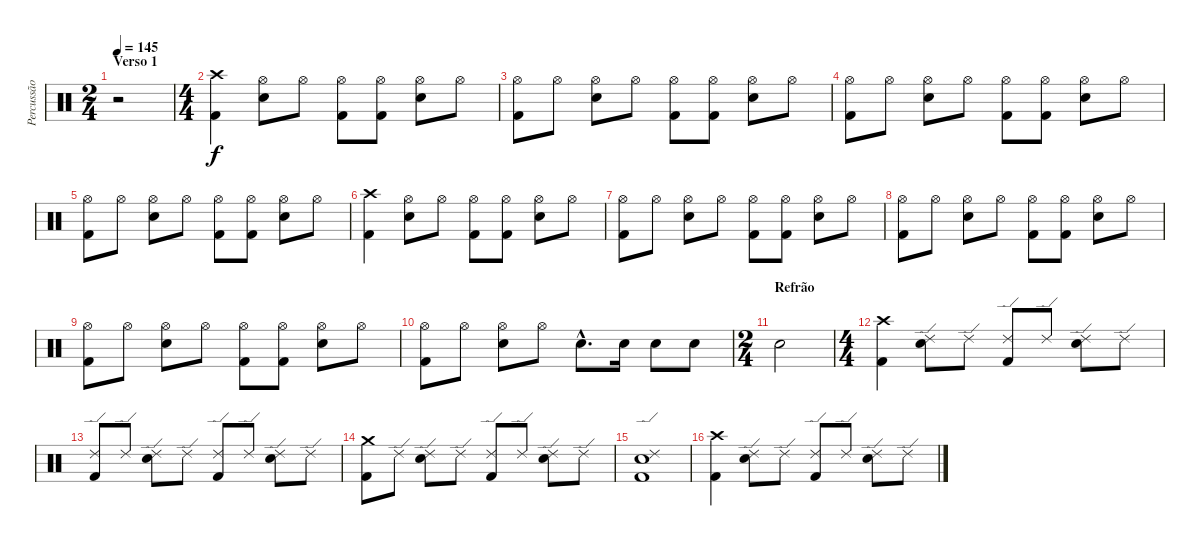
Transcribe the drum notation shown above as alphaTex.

\track ("Percussão" "Percussão") {instrument percussion}
\staff {score}
\articulation defaults
\ts (2 4)
\section ("" "Verso 1")
\tempo 145
\clef neutral
\ks c
r.2{dy f} |
\ts (4 4)
("Crash high (hit)" "Kick (hit) 2").4 ("Hi-Hat (open)" "Electric Snare (hit)").8 "Hi-Hat (open)".8 ("Hi-Hat (open)" "Kick (hit) 2").8 ("Hi-Hat (open)" "Kick (hit) 2").8 ("Hi-Hat (open)" "Electric Snare (hit)").8 "Hi-Hat (open)".8 |
("Hi-Hat (open)" "Kick (hit) 2").8 "Hi-Hat (open)".8 ("Hi-Hat (open)" "Electric Snare (hit)").8 "Hi-Hat (open)".8 ("Hi-Hat (open)" "Kick (hit) 2").8 ("Hi-Hat (open)" "Kick (hit) 2").8 ("Hi-Hat (open)" "Electric Snare (hit)").8 "Hi-Hat (open)".8 |
("Hi-Hat (open)" "Kick (hit) 2").8 "Hi-Hat (open)".8 ("Hi-Hat (open)" "Electric Snare (hit)").8 "Hi-Hat (open)".8 ("Hi-Hat (open)" "Kick (hit) 2").8 ("Hi-Hat (open)" "Kick (hit) 2").8 ("Hi-Hat (open)" "Electric Snare (hit)").8 "Hi-Hat (open)".8 |
("Hi-Hat (open)" "Kick (hit) 2").8 "Hi-Hat (open)".8 ("Hi-Hat (open)" "Electric Snare (hit)").8 "Hi-Hat (open)".8 ("Hi-Hat (open)" "Kick (hit) 2").8 ("Hi-Hat (open)" "Kick (hit) 2").8 ("Hi-Hat (open)" "Electric Snare (hit)").8 "Hi-Hat (open)".8 |
("Crash high (hit)" "Kick (hit) 2").4 ("Hi-Hat (open)" "Electric Snare (hit)").8 "Hi-Hat (open)".8 ("Hi-Hat (open)" "Kick (hit) 2").8 ("Hi-Hat (open)" "Kick (hit) 2").8 ("Hi-Hat (open)" "Electric Snare (hit)").8 "Hi-Hat (open)".8 |
("Hi-Hat (open)" "Kick (hit) 2").8 "Hi-Hat (open)".8 ("Hi-Hat (open)" "Electric Snare (hit)").8 "Hi-Hat (open)".8 ("Hi-Hat (open)" "Kick (hit) 2").8 ("Hi-Hat (open)" "Kick (hit) 2").8 ("Hi-Hat (open)" "Electric Snare (hit)").8 "Hi-Hat (open)".8 |
("Hi-Hat (open)" "Kick (hit) 2").8 "Hi-Hat (open)".8 ("Hi-Hat (open)" "Electric Snare (hit)").8 "Hi-Hat (open)".8 ("Hi-Hat (open)" "Kick (hit) 2").8 ("Hi-Hat (open)" "Kick (hit) 2").8 ("Hi-Hat (open)" "Electric Snare (hit)").8 "Hi-Hat (open)".8 |
("Hi-Hat (open)" "Kick (hit) 2").8 "Hi-Hat (open)".8 ("Hi-Hat (open)" "Electric Snare (hit)").8 "Hi-Hat (open)".8 ("Hi-Hat (open)" "Kick (hit) 2").8 ("Hi-Hat (open)" "Kick (hit) 2").8 ("Hi-Hat (open)" "Electric Snare (hit)").8 "Hi-Hat (open)".8 |
("Hi-Hat (open)" "Kick (hit) 2").8 "Hi-Hat (open)".8 ("Hi-Hat (open)" "Electric Snare (hit)").8 "Hi-Hat (open)".8 "Electric Snare (hit)"{hac}.8{d} "Electric Snare (hit)".16 "Electric Snare (hit)".8 "Electric Snare (hit)".8 |
\ts (2 4)
\section ("" "Refrão")
"Electric Snare (hit)".2 |
\ts (4 4)
("Crash high (hit)" "Kick (hit) 2").4 ("Ride (edge) 2" "Electric Snare (hit)").8 "Ride (edge) 2".8 ("Ride (edge) 2" "Kick (hit) 2").8 "Ride (edge) 2".8 ("Ride (edge) 2" "Electric Snare (hit)").8 "Ride (edge) 2".8 |
("Ride (edge) 2" "Kick (hit) 2").8 "Ride (edge) 2".8 ("Ride (edge) 2" "Electric Snare (hit)").8 "Ride (edge) 2".8 ("Ride (edge) 2" "Kick (hit) 2").8 "Ride (edge) 2".8 ("Ride (edge) 2" "Electric Snare (hit)").8 "Ride (edge) 2".8 |
("Crash medium (hit)" "Kick (hit) 2").8 "Ride (edge) 2".8 ("Ride (edge) 2" "Electric Snare (hit)").8 "Ride (edge) 2".8 ("Ride (edge) 2" "Kick (hit) 2").8 "Ride (edge) 2".8 ("Ride (edge) 2" "Electric Snare (hit)").8 "Ride (edge) 2".8 |
("Ride (edge) 2" "Electric Snare (hit)" "Kick (hit) 2").1 |
("Crash high (hit)" "Kick (hit) 2").4 ("Ride (edge) 2" "Electric Snare (hit)").8 "Ride (edge) 2".8 ("Ride (edge) 2" "Kick (hit) 2").8 "Ride (edge) 2".8 ("Ride (edge) 2" "Electric Snare (hit)").8 "Ride (edge) 2".8
